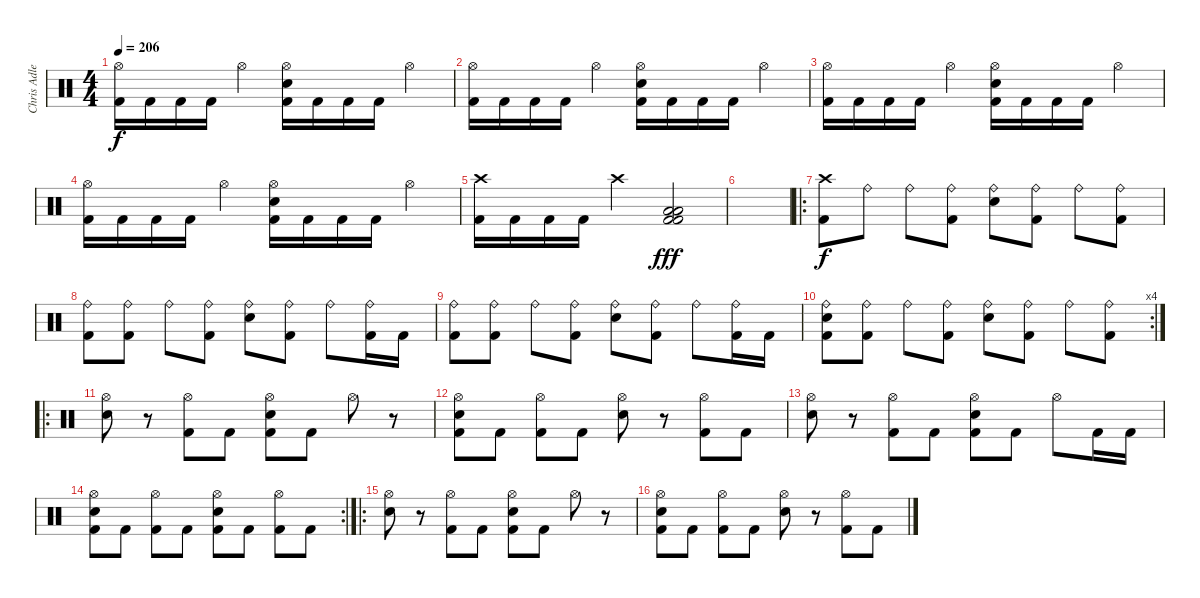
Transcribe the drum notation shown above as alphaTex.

\track ("Chris Adler" "Chris Adle") {instrument percussion}
\staff {score}
\articulation defaults
\ts (4 4)
\tempo 206
\clef neutral
\ks c
("Hi-Hat (open)" "Kick (hit) 2").16{dy f} "Kick (hit) 2".16 "Kick (hit) 2".16 "Kick (hit) 2".16 "Hi-Hat (open)".4 ("Hi-Hat (open)" "Electric Snare (hit)" "Kick (hit) 2").16 "Kick (hit) 2".16 "Kick (hit) 2".16 "Kick (hit) 2".16 "Hi-Hat (open)".4 |
("Hi-Hat (open)" "Kick (hit) 2").16 "Kick (hit) 2".16 "Kick (hit) 2".16 "Kick (hit) 2".16 "Hi-Hat (open)".4 ("Hi-Hat (open)" "Electric Snare (hit)" "Kick (hit) 2").16 "Kick (hit) 2".16 "Kick (hit) 2".16 "Kick (hit) 2".16 "Hi-Hat (open)".4 |
("Hi-Hat (open)" "Kick (hit) 2").16 "Kick (hit) 2".16 "Kick (hit) 2".16 "Kick (hit) 2".16 "Hi-Hat (open)".4 ("Hi-Hat (open)" "Electric Snare (hit)" "Kick (hit) 2").16 "Kick (hit) 2".16 "Kick (hit) 2".16 "Kick (hit) 2".16 "Hi-Hat (open)".4 |
("Hi-Hat (open)" "Kick (hit) 2").16 "Kick (hit) 2".16 "Kick (hit) 2".16 "Kick (hit) 2".16 "Hi-Hat (open)".4 ("Hi-Hat (open)" "Electric Snare (hit)" "Kick (hit) 2").16 "Kick (hit) 2".16 "Kick (hit) 2".16 "Kick (hit) 2".16 "Hi-Hat (open)".4 |
("Crash high (hit)" "Kick (hit) 2").16 "Kick (hit) 2".16 "Kick (hit) 2".16 "Kick (hit) 2".16 "Crash high (hit)".4 ("Kick (hit) 2" "Low Tom (hit)" "Low Floor Tom (hit)" "Kick (hit) 2").2{dy fff} |
|
\ro
("Crash high (hit)" "Kick (hit) 2").8{dy f} "Ride (bell)".8 "Ride (bell)".8 ("Ride (bell)" "Kick (hit) 2").8 ("Ride (bell)" "Electric Snare (hit)").8 ("Ride (bell)" "Kick (hit) 2").8 "Ride (bell)".8 ("Ride (bell)" "Kick (hit) 2").8 |
("Ride (bell)" "Kick (hit) 2").8 ("Ride (bell)" "Kick (hit) 2").8 "Ride (bell)".8 ("Ride (bell)" "Kick (hit) 2").8 ("Ride (bell)" "Electric Snare (hit)").8 ("Ride (bell)" "Kick (hit) 2").8 "Ride (bell)".8 ("Ride (bell)" "Kick (hit) 2").16 "Kick (hit) 2".16 |
("Ride (bell)" "Kick (hit) 2").8 ("Ride (bell)" "Kick (hit) 2").8 "Ride (bell)".8 ("Ride (bell)" "Kick (hit) 2").8 ("Ride (bell)" "Electric Snare (hit)").8 ("Ride (bell)" "Kick (hit) 2").8 "Ride (bell)".8 ("Ride (bell)" "Kick (hit) 2").16 "Kick (hit) 2".16 |
\rc 4
("Ride (bell)" "Electric Snare (hit)" "Kick (hit) 2").8 ("Ride (bell)" "Kick (hit) 2").8 "Ride (bell)".8 ("Ride (bell)" "Kick (hit) 2").8 ("Ride (bell)" "Electric Snare (hit)").8 ("Ride (bell)" "Kick (hit) 2").8 "Ride (bell)".8 ("Ride (bell)" "Kick (hit) 2").8 |
\ro
("Hi-Hat (open)" "Snare (hit) 2").8 r.8 ("Hi-Hat (open)" "Kick (hit) 2").8 "Kick (hit) 2".8 ("Hi-Hat (open)" "Electric Snare (hit)" "Kick (hit) 2").8 "Kick (hit) 2".8 "Hi-Hat (open)".8 r.8 |
("Hi-Hat (open)" "Snare (hit) 2" "Kick (hit) 2").8 "Kick (hit) 2".8 ("Hi-Hat (open)" "Kick (hit) 2").8 "Kick (hit) 2".8 ("Hi-Hat (open)" "Snare (hit) 2").8 r.8 ("Hi-Hat (open)" "Kick (hit) 2").8 "Kick (hit) 2".8 |
("Hi-Hat (open)" "Snare (hit) 2").8 r.8 ("Hi-Hat (open)" "Kick (hit) 2").8 "Kick (hit) 2".8 ("Hi-Hat (open)" "Snare (hit) 2" "Kick (hit) 2").8 "Kick (hit) 2".8 "Hi-Hat (open)".8 "Kick (hit) 2".16 "Kick (hit) 2".16 |
\rc 2
("Hi-Hat (open)" "Snare (hit) 2" "Kick (hit) 2").8 "Kick (hit) 2".8 ("Hi-Hat (open)" "Kick (hit) 2").8 "Kick (hit) 2".8 ("Hi-Hat (open)" "Snare (hit) 2" "Kick (hit) 2").8 "Kick (hit) 2".8 ("Hi-Hat (open)" "Kick (hit) 2").8 "Kick (hit) 2".8 |
\ro
("Hi-Hat (open)" "Snare (hit) 2").8 r.8 ("Hi-Hat (open)" "Kick (hit) 2").8 "Kick (hit) 2".8 ("Hi-Hat (open)" "Snare (hit) 2" "Kick (hit) 2").8 "Kick (hit) 2".8 "Hi-Hat (open)".8 r.8 |
("Hi-Hat (open)" "Snare (hit) 2" "Kick (hit) 2").8 "Kick (hit) 2".8 ("Hi-Hat (open)" "Kick (hit) 2").8 "Kick (hit) 2".8 ("Hi-Hat (open)" "Snare (hit) 2").8 r.8 ("Hi-Hat (open)" "Kick (hit) 2").8 "Kick (hit) 2".8
